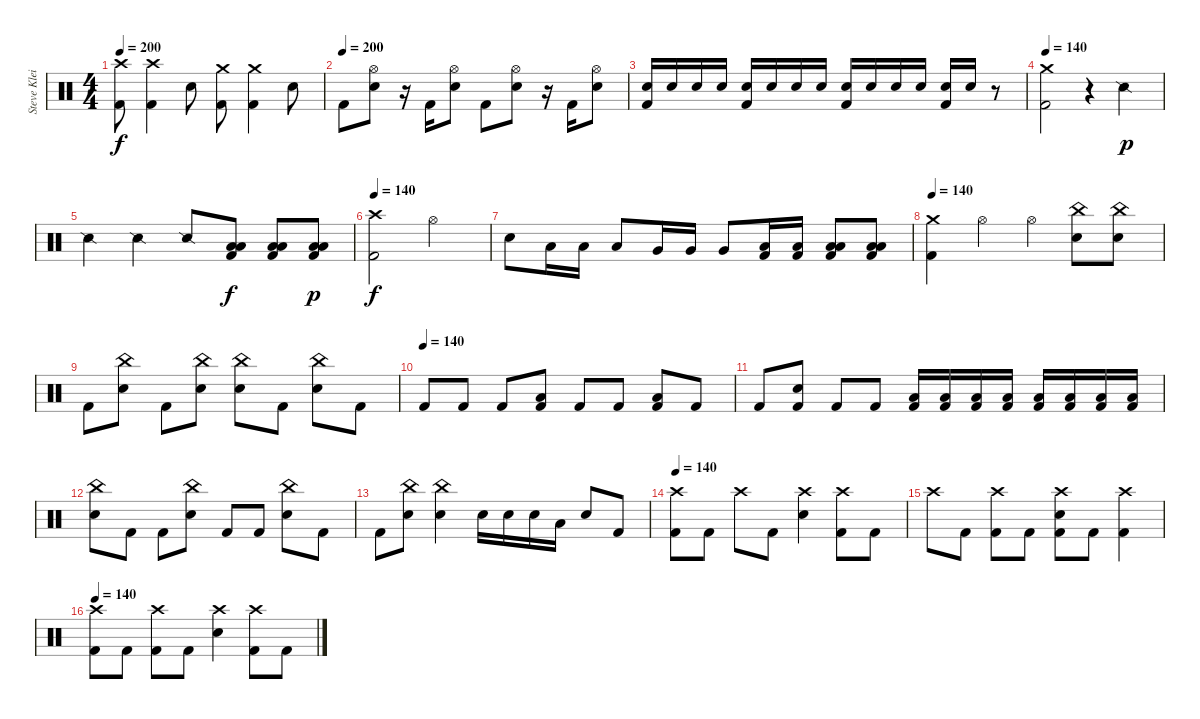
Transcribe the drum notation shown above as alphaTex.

\track ("Steve Kleisath" "Steve Klei") {instrument percussion}
\staff
\articulation defaults
\ts (4 4)
\tempo 200
\clef neutral
\ks c
("Crash high (hit)" "Kick (hit) 2").8{dy f} ("Crash high (hit)" "Kick (hit) 2").4 "Electric Snare (hit)".8 ("Crash medium (hit)" "Kick (hit) 2").8 ("Crash medium (hit)" "Kick (hit) 2").4 "Electric Snare (hit)".8 |
\tempo (200)
"Kick (hit) 2".8 ("Hi-Hat (open)" "Electric Snare (hit)").8 r.16 "Kick (hit) 2".16 ("Hi-Hat (open)" "Electric Snare (hit)").8 "Kick (hit) 2".8 ("Hi-Hat (open)" "Electric Snare (hit)").8 r.16 "Kick (hit) 2".16 ("Hi-Hat (open)" "Electric Snare (hit)").8 |
("Electric Snare (hit)" "Kick (hit) 2").16 "Electric Snare (hit)".16 "Electric Snare (hit)".16 "Electric Snare (hit)".16 ("Electric Snare (hit)" "Kick (hit) 2").16 "Electric Snare (hit)".16 "Electric Snare (hit)".16 "Electric Snare (hit)".16 ("Electric Snare (hit)" "Kick (hit) 2").16 "Electric Snare (hit)".16 "Electric Snare (hit)".16 "Electric Snare (hit)".16 ("Electric Snare (hit)" "Kick (hit) 2").16 "Electric Snare (hit)".16 r.8 |
\tempo 140
("Crash medium (hit)" "Kick (hit) 2").2 r.4 "Snare (side stick) 2".4{dy p} |
"Snare (side stick) 2".4 "Snare (side stick) 2".4 "Snare (side stick) 2".8 ("Low Floor Tom (hit)" "Low Tom (hit)" "Kick (hit) 2").8{dy f} ("Low Floor Tom (hit)" "Low Tom (hit)" "Kick (hit) 2").8 ("Low Floor Tom (hit)" "Low Tom (hit)" "Kick (hit) 2").8{dy p} |
\tempo 140
("Crash high (hit)" "Kick (hit) 2").2{dy f} "Hi-Hat (open)".2 |
"Electric Snare (hit)".8 "Low Tom (hit)".16 "Low Tom (hit)".16 "Low Tom (hit)".8 "Very Low Tom (hit)".16 "Very Low Tom (hit)".16 "Very Low Tom (hit)".8 ("Low Floor Tom (hit)" "Kick (hit) 2").16 ("Low Floor Tom (hit)" "Kick (hit) 2").16 ("Low Tom (hit)" "Low Floor Tom (hit)" "Kick (hit) 2").8 ("Low Tom (hit)" "Low Floor Tom (hit)" "Kick (hit) 2").8 |
\tempo 140
("Crash medium (hit)" "Kick (hit) 2").4 "Hi-Hat (open)".4 "Hi-Hat (open)".4 ("China (hit)" "Electric Snare (hit)").8 ("China (hit)" "Electric Snare (hit)").8 |
"Kick (hit) 2".8 ("China (hit)" "Electric Snare (hit)").8 "Kick (hit) 2".8 ("China (hit)" "Electric Snare (hit)").8 ("China (hit)" "Electric Snare (hit)").8 "Kick (hit) 2".8 ("China (hit)" "Electric Snare (hit)").8 "Kick (hit) 2".8 |
\tempo (140)
"Kick (hit) 2".8 "Kick (hit) 2".8 "Kick (hit) 2".8 ("Low Tom (hit)" "Kick (hit) 2").8 "Kick (hit) 2".8 "Kick (hit) 2".8 ("Low Floor Tom (hit)" "Kick (hit) 2").8 "Kick (hit) 2".8 |
"Kick (hit) 2".8 ("Electric Snare (hit)" "Kick (hit) 2").8 "Kick (hit) 2".8 "Kick (hit) 2".8 ("Low Tom (hit)" "Kick (hit) 2").16 ("Low Tom (hit)" "Kick (hit) 2").16 ("Low Tom (hit)" "Kick (hit) 2").16 ("Low Tom (hit)" "Kick (hit) 2").16 ("Low Floor Tom (hit)" "Kick (hit) 2").16 ("Low Floor Tom (hit)" "Kick (hit) 2").16 ("Low Floor Tom (hit)" "Kick (hit) 2").16 ("Low Floor Tom (hit)" "Kick (hit) 2").16 |
("China (hit)" "Electric Snare (hit)").8 "Kick (hit) 2".8 "Kick (hit) 2".8 ("China (hit)" "Electric Snare (hit)").8 "Kick (hit) 2".8 "Kick (hit) 2".8 ("China (hit)" "Electric Snare (hit)").8 "Kick (hit) 2".8 |
"Kick (hit) 2".8 ("China (hit)" "Electric Snare (hit)").8 ("China (hit)" "Electric Snare (hit)").4 "Electric Snare (hit)".16 "Electric Snare (hit)".16 "Electric Snare (hit)".16 "Low Tom (hit)".16 "Electric Snare (hit)".8 "Kick (hit) 2".8 |
\tempo 140
("Crash high (hit)" "Kick (hit) 2").8 "Kick (hit) 2".8 "Crash high (hit)".8 "Kick (hit) 2".8 ("Crash high (hit)" "Electric Snare (hit)").4 ("Crash high (hit)" "Kick (hit) 2").8 "Kick (hit) 2".8 |
"Crash high (hit)".8 "Kick (hit) 2".8 ("Crash high (hit)" "Kick (hit) 2").8 "Kick (hit) 2".8 ("Crash high (hit)" "Electric Snare (hit)" "Kick (hit) 2").8 "Kick (hit) 2".8 ("Crash high (hit)" "Kick (hit) 2").4 |
\tempo 140
("Crash high (hit)" "Kick (hit) 2").8 "Kick (hit) 2".8 ("Crash high (hit)" "Kick (hit) 2").8 "Kick (hit) 2".8 ("Crash high (hit)" "Electric Snare (hit)").4 ("Crash high (hit)" "Kick (hit) 2").8 "Kick (hit) 2".8
